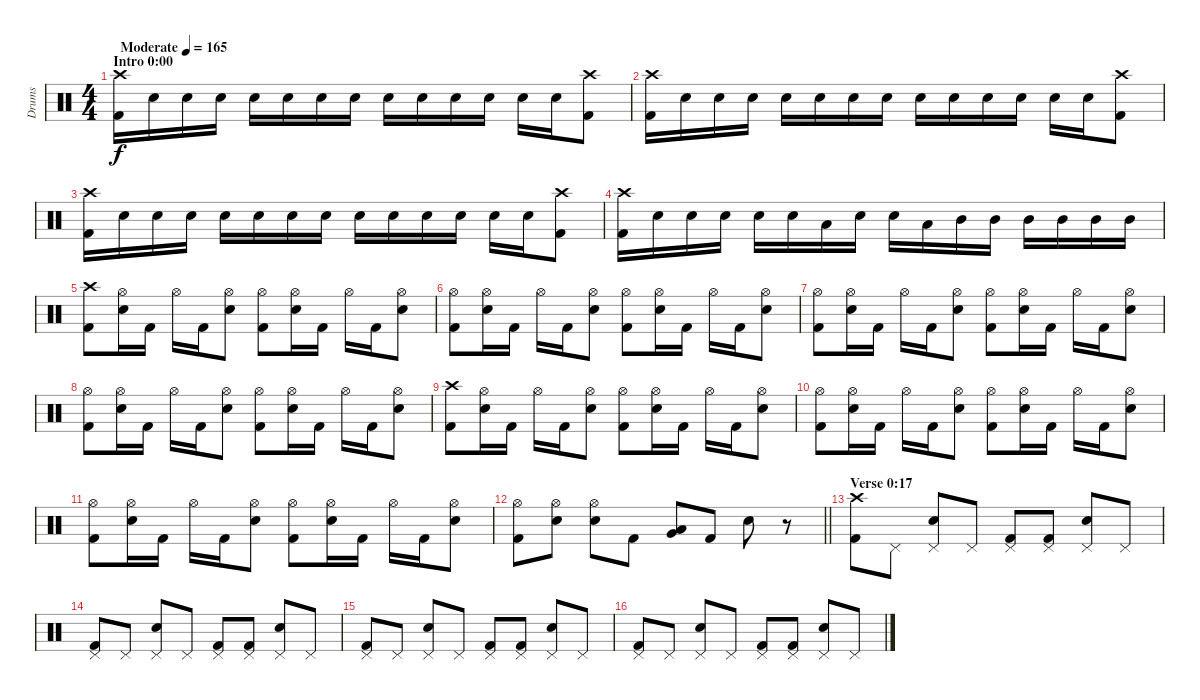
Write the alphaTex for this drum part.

\track ("Drums" "Drums") {instrument percussion}
\staff {score}
\articulation defaults
\ts (4 4)
\section ("" "Intro 0:00")
\tempo (165 "Moderate")
\clef neutral
\ks c
("Crash high (hit)" "Kick (hit) 2").16{dy f} "Electric Snare (hit)".16 "Electric Snare (hit)".16 "Electric Snare (hit)".16 "Electric Snare (hit)".16 "Electric Snare (hit)".16 "Electric Snare (hit)".16 "Electric Snare (hit)".16 "Electric Snare (hit)".16 "Electric Snare (hit)".16 "Electric Snare (hit)".16 "Electric Snare (hit)".16 "Electric Snare (hit)".16 "Electric Snare (hit)".16 ("Crash high (hit)" "Kick (hit) 2").8 |
("Crash high (hit)" "Kick (hit) 2").16 "Electric Snare (hit)".16 "Electric Snare (hit)".16 "Electric Snare (hit)".16 "Electric Snare (hit)".16 "Electric Snare (hit)".16 "Electric Snare (hit)".16 "Electric Snare (hit)".16 "Electric Snare (hit)".16 "Electric Snare (hit)".16 "Electric Snare (hit)".16 "Electric Snare (hit)".16 "Electric Snare (hit)".16 "Electric Snare (hit)".16 ("Crash high (hit)" "Kick (hit) 2").8 |
("Crash high (hit)" "Kick (hit) 2").16 "Electric Snare (hit)".16 "Electric Snare (hit)".16 "Electric Snare (hit)".16 "Electric Snare (hit)".16 "Electric Snare (hit)".16 "Electric Snare (hit)".16 "Electric Snare (hit)".16 "Electric Snare (hit)".16 "Electric Snare (hit)".16 "Electric Snare (hit)".16 "Electric Snare (hit)".16 "Electric Snare (hit)".16 "Electric Snare (hit)".16 ("Crash high (hit)" "Kick (hit) 2").8 |
("Crash high (hit)" "Kick (hit) 2").16 "Electric Snare (hit)".16 "Electric Snare (hit)".16 "Electric Snare (hit)".16 "Electric Snare (hit)".16 "Electric Snare (hit)".16 "Low Floor Tom (hit)".16 "Electric Snare (hit)".16 "Electric Snare (hit)".16 "Low Floor Tom (hit)".16 "Mid Tom (hit)".16 "Mid Tom (hit)".16 "Mid Tom (hit)".16 "Mid Tom (hit)".16 "Mid Tom (hit)".16 "Mid Tom (hit)".16 |
("Crash high (hit)" "Kick (hit) 2").8 ("Hi-Hat (open)" "Electric Snare (hit)").16 "Kick (hit) 2".16 "Hi-Hat (open)".16 "Kick (hit) 2".16 ("Hi-Hat (open)" "Electric Snare (hit)").8 ("Hi-Hat (open)" "Kick (hit) 2").8 ("Hi-Hat (open)" "Electric Snare (hit)").16 "Kick (hit) 2".16 "Hi-Hat (open)".16 "Kick (hit) 2".16 ("Hi-Hat (open)" "Electric Snare (hit)").8 |
("Hi-Hat (open)" "Kick (hit) 2").8 ("Hi-Hat (open)" "Electric Snare (hit)").16 "Kick (hit) 2".16 "Hi-Hat (open)".16 "Kick (hit) 2".16 ("Hi-Hat (open)" "Electric Snare (hit)").8 ("Hi-Hat (open)" "Kick (hit) 2").8 ("Hi-Hat (open)" "Electric Snare (hit)").16 "Kick (hit) 2".16 "Hi-Hat (open)".16 "Kick (hit) 2".16 ("Hi-Hat (open)" "Electric Snare (hit)").8 |
("Hi-Hat (open)" "Kick (hit) 2").8 ("Hi-Hat (open)" "Electric Snare (hit)").16 "Kick (hit) 2".16 "Hi-Hat (open)".16 "Kick (hit) 2".16 ("Hi-Hat (open)" "Electric Snare (hit)").8 ("Hi-Hat (open)" "Kick (hit) 2").8 ("Hi-Hat (open)" "Electric Snare (hit)").16 "Kick (hit) 2".16 "Hi-Hat (open)".16 "Kick (hit) 2".16 ("Hi-Hat (open)" "Electric Snare (hit)").8 |
("Hi-Hat (open)" "Kick (hit) 2").8 ("Hi-Hat (open)" "Electric Snare (hit)").16 "Kick (hit) 2".16 "Hi-Hat (open)".16 "Kick (hit) 2".16 ("Hi-Hat (open)" "Electric Snare (hit)").8 ("Hi-Hat (open)" "Kick (hit) 2").8 ("Hi-Hat (open)" "Electric Snare (hit)").16 "Kick (hit) 2".16 "Hi-Hat (open)".16 "Kick (hit) 2".16 ("Hi-Hat (open)" "Electric Snare (hit)").8 |
("Crash high (hit)" "Kick (hit) 2").8 ("Hi-Hat (open)" "Electric Snare (hit)").16 "Kick (hit) 2".16 "Hi-Hat (open)".16 "Kick (hit) 2".16 ("Hi-Hat (open)" "Electric Snare (hit)").8 ("Hi-Hat (open)" "Kick (hit) 2").8 ("Hi-Hat (open)" "Electric Snare (hit)").16 "Kick (hit) 2".16 "Hi-Hat (open)".16 "Kick (hit) 2".16 ("Hi-Hat (open)" "Electric Snare (hit)").8 |
("Hi-Hat (open)" "Kick (hit) 2").8 ("Hi-Hat (open)" "Electric Snare (hit)").16 "Kick (hit) 2".16 "Hi-Hat (open)".16 "Kick (hit) 2".16 ("Hi-Hat (open)" "Electric Snare (hit)").8 ("Hi-Hat (open)" "Kick (hit) 2").8 ("Hi-Hat (open)" "Electric Snare (hit)").16 "Kick (hit) 2".16 "Hi-Hat (open)".16 "Kick (hit) 2".16 ("Hi-Hat (open)" "Electric Snare (hit)").8 |
("Hi-Hat (open)" "Kick (hit) 2").8 ("Hi-Hat (open)" "Electric Snare (hit)").16 "Kick (hit) 2".16 "Hi-Hat (open)".16 "Kick (hit) 2".16 ("Hi-Hat (open)" "Electric Snare (hit)").8 ("Hi-Hat (open)" "Kick (hit) 2").8 ("Hi-Hat (open)" "Electric Snare (hit)").16 "Kick (hit) 2".16 "Hi-Hat (open)".16 "Kick (hit) 2".16 ("Hi-Hat (open)" "Electric Snare (hit)").8 |
\barLineRight lightlight
("Hi-Hat (open)" "Kick (hit) 2").8 ("Hi-Hat (open)" "Electric Snare (hit)").8 ("Hi-Hat (open)" "Electric Snare (hit)").8 "Kick (hit) 2".8 ("Low Tom (hit)" "Very Low Tom (hit)").8 "Kick (hit) 2".8 "Electric Snare (hit)".8 r.8 |
\section ("" "Verse 0:17")
("Crash high (hit)" "Kick (hit) 2").8 "Pedal Hi-Hat (hit)".8 ("Pedal Hi-Hat (hit)" "Electric Snare (hit)").8 "Pedal Hi-Hat (hit)".8 ("Pedal Hi-Hat (hit)" "Kick (hit) 2").8 ("Pedal Hi-Hat (hit)" "Kick (hit) 2").8 ("Pedal Hi-Hat (hit)" "Electric Snare (hit)").8 "Pedal Hi-Hat (hit)".8 |
("Pedal Hi-Hat (hit)" "Kick (hit) 2").8 "Pedal Hi-Hat (hit)".8 ("Pedal Hi-Hat (hit)" "Electric Snare (hit)").8 "Pedal Hi-Hat (hit)".8 ("Pedal Hi-Hat (hit)" "Kick (hit) 2").8 ("Pedal Hi-Hat (hit)" "Kick (hit) 2").8 ("Pedal Hi-Hat (hit)" "Electric Snare (hit)").8 "Pedal Hi-Hat (hit)".8 |
("Pedal Hi-Hat (hit)" "Kick (hit) 2").8 "Pedal Hi-Hat (hit)".8 ("Pedal Hi-Hat (hit)" "Electric Snare (hit)").8 "Pedal Hi-Hat (hit)".8 ("Pedal Hi-Hat (hit)" "Kick (hit) 2").8 ("Pedal Hi-Hat (hit)" "Kick (hit) 2").8 ("Pedal Hi-Hat (hit)" "Electric Snare (hit)").8 "Pedal Hi-Hat (hit)".8 |
("Pedal Hi-Hat (hit)" "Kick (hit) 2").8 "Pedal Hi-Hat (hit)".8 ("Pedal Hi-Hat (hit)" "Electric Snare (hit)").8 "Pedal Hi-Hat (hit)".8 ("Pedal Hi-Hat (hit)" "Kick (hit) 2").8 ("Pedal Hi-Hat (hit)" "Kick (hit) 2").8 ("Pedal Hi-Hat (hit)" "Electric Snare (hit)").8 "Pedal Hi-Hat (hit)".8
